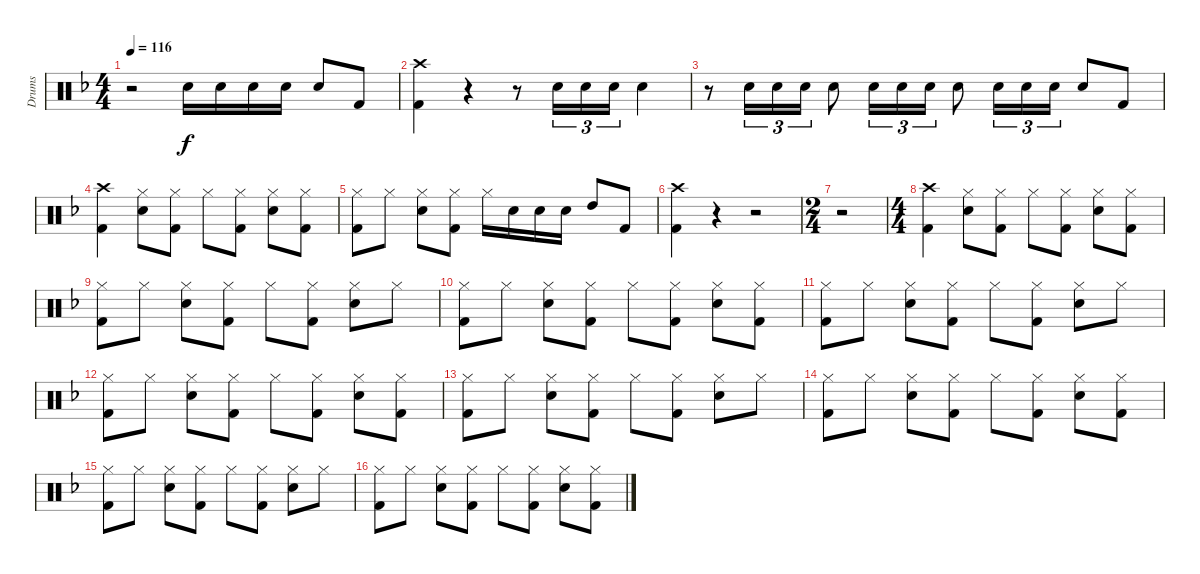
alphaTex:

\track ("Drums" "Drums") {instrument percussion}
\staff {score}
\articulation defaults
\ts (4 4)
\tempo 116
\clef neutral
\ks dminor
r.2{dy f} "Electric Snare (hit)".16 "Electric Snare (hit)".16 "Electric Snare (hit)".16 "Electric Snare (hit)".16 "Electric Snare (hit)".8 "Kick (hit) 2".8 |
("Crash high (hit)" "Kick (hit) 2").4 r.4 r.8 "Electric Snare (hit)".16{tu (3 2)} "Electric Snare (hit)".16{tu (3 2)} "Electric Snare (hit)".16{tu (3 2)} "Electric Snare (hit)".4 |
r.8 "Electric Snare (hit)".16{tu (3 2)} "Electric Snare (hit)".16{tu (3 2)} "Electric Snare (hit)".16{tu (3 2)} "Electric Snare (hit)".8 "Electric Snare (hit)".16{tu (3 2)} "Electric Snare (hit)".16{tu (3 2)} "Electric Snare (hit)".16{tu (3 2)} "Electric Snare (hit)".8 "Electric Snare (hit)".16{tu (3 2)} "Electric Snare (hit)".16{tu (3 2)} "Electric Snare (hit)".16{tu (3 2)} "Electric Snare (hit)".8 "Kick (hit) 2".8 |
("Crash high (hit)" "Kick (hit) 2").4 ("Hi-Hat (closed)" "Electric Snare (hit)").8 ("Hi-Hat (closed)" "Kick (hit) 2").8 "Hi-Hat (closed)".8 ("Hi-Hat (closed)" "Kick (hit) 2").8 ("Hi-Hat (closed)" "Electric Snare (hit)").8 ("Hi-Hat (closed)" "Kick (hit) 2").8 |
("Hi-Hat (closed)" "Kick (hit) 2").8 "Hi-Hat (closed)".8 ("Hi-Hat (closed)" "Electric Snare (hit)").8 ("Hi-Hat (closed)" "Kick (hit) 2").8 "Hi-Hat (closed)".16 "Electric Snare (hit)".16 "Electric Snare (hit)".16 "Electric Snare (hit)".16 "High Tom (hit)".8 "Kick (hit) 2".8 |
("Crash high (hit)" "Kick (hit) 2").4 r.4 r.2 |
\ts (2 4)
r.2 |
\ts (4 4)
("Crash high (hit)" "Kick (hit) 2").4 ("Hi-Hat (closed)" "Electric Snare (hit)").8 ("Hi-Hat (closed)" "Kick (hit) 2").8 "Hi-Hat (closed)".8 ("Hi-Hat (closed)" "Kick (hit) 2").8 ("Hi-Hat (closed)" "Electric Snare (hit)").8 ("Hi-Hat (closed)" "Kick (hit) 2").8 |
("Hi-Hat (closed)" "Kick (hit) 2").8 "Hi-Hat (closed)".8 ("Hi-Hat (closed)" "Electric Snare (hit)").8 ("Hi-Hat (closed)" "Kick (hit) 2").8 "Hi-Hat (closed)".8 ("Hi-Hat (closed)" "Kick (hit) 2").8 ("Hi-Hat (closed)" "Electric Snare (hit)").8 "Hi-Hat (closed)".8 |
("Hi-Hat (closed)" "Kick (hit) 2").8 "Hi-Hat (closed)".8 ("Hi-Hat (closed)" "Electric Snare (hit)").8 ("Hi-Hat (closed)" "Kick (hit) 2").8 "Hi-Hat (closed)".8 ("Hi-Hat (closed)" "Kick (hit) 2").8 ("Hi-Hat (closed)" "Electric Snare (hit)").8 ("Hi-Hat (closed)" "Kick (hit) 2").8 |
("Hi-Hat (closed)" "Kick (hit) 2").8 "Hi-Hat (closed)".8 ("Hi-Hat (closed)" "Electric Snare (hit)").8 ("Hi-Hat (closed)" "Kick (hit) 2").8 "Hi-Hat (closed)".8 ("Hi-Hat (closed)" "Kick (hit) 2").8 ("Hi-Hat (closed)" "Electric Snare (hit)").8 "Hi-Hat (closed)".8 |
("Hi-Hat (closed)" "Kick (hit) 2").8 "Hi-Hat (closed)".8 ("Hi-Hat (closed)" "Electric Snare (hit)").8 ("Hi-Hat (closed)" "Kick (hit) 2").8 "Hi-Hat (closed)".8 ("Hi-Hat (closed)" "Kick (hit) 2").8 ("Hi-Hat (closed)" "Electric Snare (hit)").8 ("Hi-Hat (closed)" "Kick (hit) 2").8 |
("Hi-Hat (closed)" "Kick (hit) 2").8 "Hi-Hat (closed)".8 ("Hi-Hat (closed)" "Electric Snare (hit)").8 ("Hi-Hat (closed)" "Kick (hit) 2").8 "Hi-Hat (closed)".8 ("Hi-Hat (closed)" "Kick (hit) 2").8 ("Hi-Hat (closed)" "Electric Snare (hit)").8 "Hi-Hat (closed)".8 |
("Hi-Hat (closed)" "Kick (hit) 2").8 "Hi-Hat (closed)".8 ("Hi-Hat (closed)" "Electric Snare (hit)").8 ("Hi-Hat (closed)" "Kick (hit) 2").8 "Hi-Hat (closed)".8 ("Hi-Hat (closed)" "Kick (hit) 2").8 ("Hi-Hat (closed)" "Electric Snare (hit)").8 ("Hi-Hat (closed)" "Kick (hit) 2").8 |
("Hi-Hat (closed)" "Kick (hit) 2").8 "Hi-Hat (closed)".8 ("Hi-Hat (closed)" "Electric Snare (hit)").8 ("Hi-Hat (closed)" "Kick (hit) 2").8 "Hi-Hat (closed)".8 ("Hi-Hat (closed)" "Kick (hit) 2").8 ("Hi-Hat (closed)" "Electric Snare (hit)").8 "Hi-Hat (closed)".8 |
("Hi-Hat (closed)" "Kick (hit) 2").8 "Hi-Hat (closed)".8 ("Hi-Hat (closed)" "Electric Snare (hit)").8 ("Hi-Hat (closed)" "Kick (hit) 2").8 "Hi-Hat (closed)".8 ("Hi-Hat (closed)" "Kick (hit) 2").8 ("Hi-Hat (closed)" "Electric Snare (hit)").8 ("Hi-Hat (closed)" "Kick (hit) 2").8
